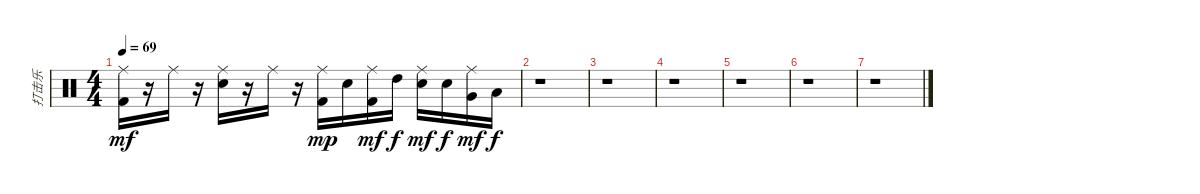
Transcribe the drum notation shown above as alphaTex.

\track ("打击乐" "打击乐") {instrument percussion}
\staff {score}
\articulation defaults
\ts (4 4)
\tempo 69
\clef neutral
\ks c
("Kick (hit) 2" "Ride (middle)").16{dy mf} r.16 "Ride (middle)".16 r.16 ("Electric Snare (hit)" "Ride (middle)").16 r.16 "Ride (middle)".16 r.16 ("Ride (middle)" "Kick (hit) 2").16{dy mp} "Electric Snare (hit)".16 ("Kick (hit) 2" "Ride (middle)").16{dy mf} "High Tom (hit)".16{dy f} ("Electric Snare (hit)" "Ride (middle)").16{dy mf} "Electric Snare (hit)".16{dy f} ("Very Low Tom (hit)" "Ride (middle)").16{dy mf} "Low Floor Tom (hit)".16{dy f} |
r.1 |
r.1 |
r.1 |
r.1 |
r.1 |
r.1
